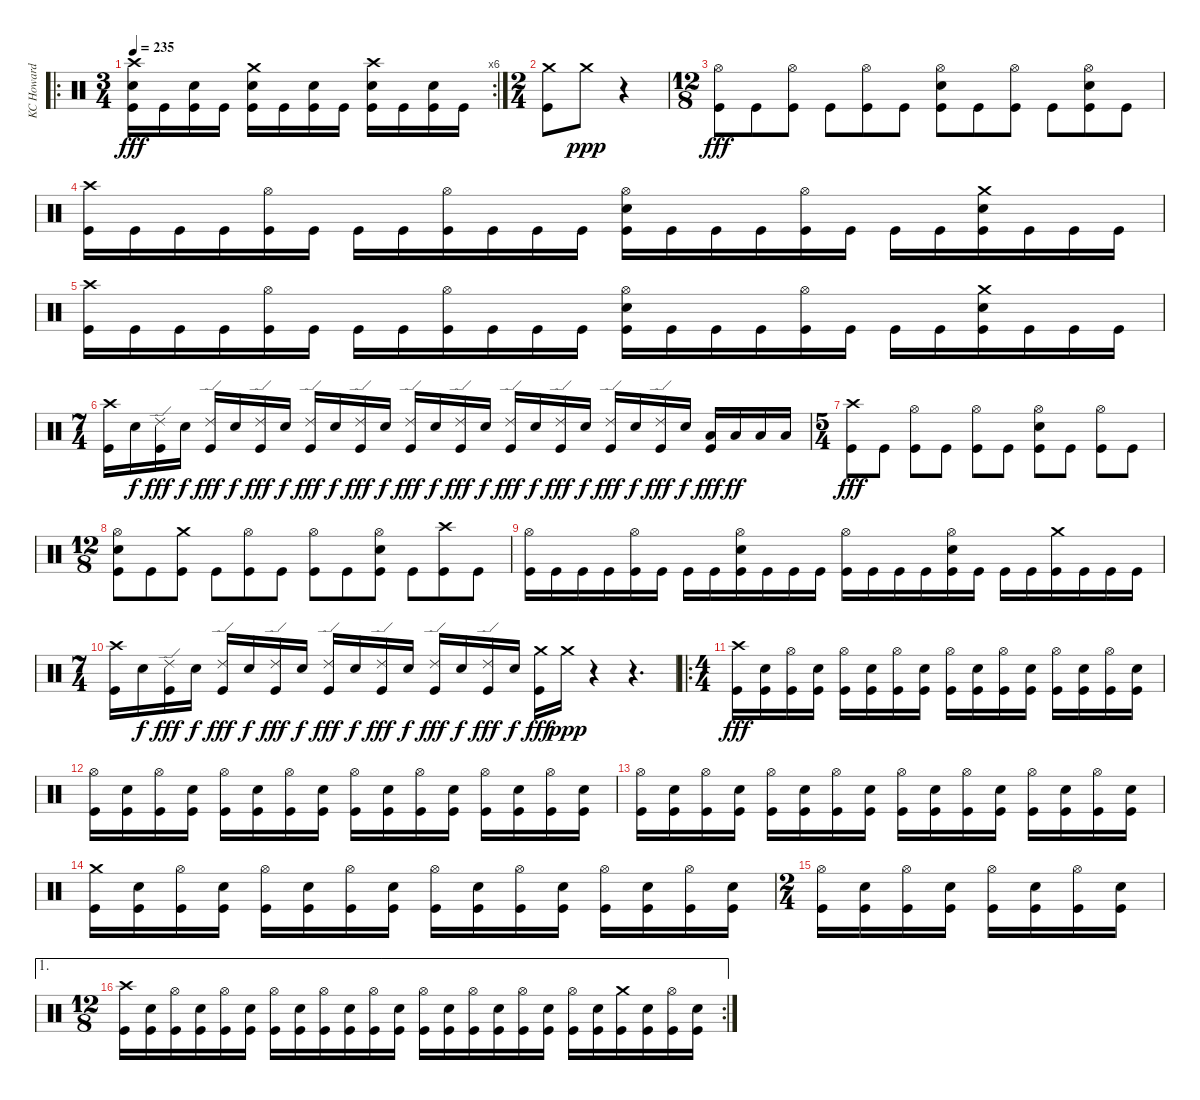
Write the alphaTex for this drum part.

\track ("KC Howard" "KC Howard") {instrument percussion}
\staff {score}
\articulation defaults
\ro
\rc 6
\ts (3 4)
\tempo 235
\clef neutral
\ks c
("Crash high (hit)" "Electric Snare (hit)" "Kick (hit)").16{dy fff} "Kick (hit)".16 ("Electric Snare (hit)" "Kick (hit)").16 "Kick (hit)".16 ("Crash medium (hit)" "Electric Snare (hit)" "Kick (hit)").16 "Kick (hit)".16 ("Electric Snare (hit)" "Kick (hit)").16 "Kick (hit)".16 ("Crash high (hit)" "Electric Snare (hit)" "Kick (hit)").16 "Kick (hit)".16 ("Electric Snare (hit)" "Kick (hit)").16 "Kick (hit)".16 |
\ts (2 4)
("Crash medium (hit)" "Kick (hit)").8 "Crash medium (hit)".8{dy ppp} r.4 |
\ts (12 8)
("Hi-Hat (open)" "Kick (hit)").8{dy fff} "Kick (hit)".8 ("Hi-Hat (open)" "Kick (hit)").8 "Kick (hit)".8 ("Hi-Hat (open)" "Kick (hit)").8 "Kick (hit)".8 ("Hi-Hat (open)" "Electric Snare (hit)" "Kick (hit)").8 "Kick (hit)".8 ("Hi-Hat (open)" "Kick (hit)").8 "Kick (hit)".8 ("Hi-Hat (open)" "Electric Snare (hit)" "Kick (hit)").8 "Kick (hit)".8 |
("Crash high (hit)" "Kick (hit)").16 "Kick (hit)".16 "Kick (hit)".16 "Kick (hit)".16 ("Hi-Hat (open)" "Kick (hit)").16 "Kick (hit)".16 "Kick (hit)".16 "Kick (hit)".16 ("Hi-Hat (open)" "Kick (hit)").16 "Kick (hit)".16 "Kick (hit)".16 "Kick (hit)".16 ("Hi-Hat (open)" "Electric Snare (hit)" "Kick (hit)").16 "Kick (hit)".16 "Kick (hit)".16 "Kick (hit)".16 ("Hi-Hat (open)" "Kick (hit)").16 "Kick (hit)".16 "Kick (hit)".16 "Kick (hit)".16 ("Crash medium (hit)" "Electric Snare (hit)" "Kick (hit)").16 "Kick (hit)".16 "Kick (hit)".16 "Kick (hit)".16 |
("Crash high (hit)" "Kick (hit)").16 "Kick (hit)".16 "Kick (hit)".16 "Kick (hit)".16 ("Hi-Hat (open)" "Kick (hit)").16 "Kick (hit)".16 "Kick (hit)".16 "Kick (hit)".16 ("Hi-Hat (open)" "Kick (hit)").16 "Kick (hit)".16 "Kick (hit)".16 "Kick (hit)".16 ("Hi-Hat (open)" "Electric Snare (hit)" "Kick (hit)").16 "Kick (hit)".16 "Kick (hit)".16 "Kick (hit)".16 ("Hi-Hat (open)" "Kick (hit)").16 "Kick (hit)".16 "Kick (hit)".16 "Kick (hit)".16 ("Crash medium (hit)" "Electric Snare (hit)" "Kick (hit)").16 "Kick (hit)".16 "Kick (hit)".16 "Kick (hit)".16 |
\ts (7 4)
("Crash high (hit)" "Kick (hit)").16 "Electric Snare (hit)".16{dy f} ("Ride (edge) 2" "Kick (hit)").16{dy fff} "Electric Snare (hit)".16{dy f} ("Ride (edge) 2" "Kick (hit)").16{dy fff} "Electric Snare (hit)".16{dy f} ("Ride (edge) 2" "Kick (hit)").16{dy fff} "Electric Snare (hit)".16{dy f} ("Ride (edge) 2" "Kick (hit)").16{dy fff} "Electric Snare (hit)".16{dy f} ("Ride (edge) 2" "Kick (hit)").16{dy fff} "Electric Snare (hit)".16{dy f} ("Ride (edge) 2" "Kick (hit)").16{dy fff} "Electric Snare (hit)".16{dy f} ("Ride (edge) 2" "Kick (hit)").16{dy fff} "Electric Snare (hit)".16{dy f} ("Ride (edge) 2" "Kick (hit)").16{dy fff} "Electric Snare (hit)".16{dy f} ("Ride (edge) 2" "Kick (hit)").16{dy fff} "Electric Snare (hit)".16{dy f} ("Ride (edge) 2" "Kick (hit)").16{dy fff} "Electric Snare (hit)".16{dy f} ("Ride (edge) 2" "Kick (hit)").16{dy fff} "Electric Snare (hit)".16{dy f} ("Low Tom (hit)" "Kick (hit)").16{dy fff} "Low Tom (hit)".16{dy ff} "Low Tom (hit)".16 "Low Tom (hit)".16 |
\ts (5 4)
("Crash high (hit)" "Kick (hit)").8{dy fff} "Kick (hit)".8 ("Hi-Hat (open)" "Kick (hit)").8 "Kick (hit)".8 ("Hi-Hat (open)" "Kick (hit)").8 "Kick (hit)".8 ("Hi-Hat (open)" "Electric Snare (hit)" "Kick (hit)").8 "Kick (hit)".8 ("Hi-Hat (open)" "Kick (hit)").8 "Kick (hit)".8 |
\ts (12 8)
("Hi-Hat (open)" "Electric Snare (hit)" "Kick (hit)").8 "Kick (hit)".8 ("Crash medium (hit)" "Kick (hit)").8 "Kick (hit)".8 ("Hi-Hat (open)" "Kick (hit)").8 "Kick (hit)".8 ("Hi-Hat (open)" "Kick (hit)").8 "Kick (hit)".8 ("Hi-Hat (open)" "Electric Snare (hit)" "Kick (hit)").8 "Kick (hit)".8 ("Crash high (hit)" "Kick (hit)").8 "Kick (hit)".8 |
("Hi-Hat (open)" "Kick (hit)").16 "Kick (hit)".16 "Kick (hit)".16 "Kick (hit)".16 ("Hi-Hat (open)" "Kick (hit)").16 "Kick (hit)".16 "Kick (hit)".16 "Kick (hit)".16 ("Hi-Hat (open)" "Electric Snare (hit)" "Kick (hit)").16 "Kick (hit)".16 "Kick (hit)".16 "Kick (hit)".16 ("Hi-Hat (open)" "Kick (hit)").16 "Kick (hit)".16 "Kick (hit)".16 "Kick (hit)".16 ("Hi-Hat (open)" "Electric Snare (hit)" "Kick (hit)").16 "Kick (hit)".16 "Kick (hit)".16 "Kick (hit)".16 ("Crash medium (hit)" "Kick (hit)").16 "Kick (hit)".16 "Kick (hit)".16 "Kick (hit)".16 |
\ts (7 4)
("Crash high (hit)" "Kick (hit)").16 "Electric Snare (hit)".16{dy f} ("Ride (edge) 2" "Kick (hit)").16{dy fff} "Electric Snare (hit)".16{dy f} ("Ride (edge) 2" "Kick (hit)").16{dy fff} "Electric Snare (hit)".16{dy f} ("Ride (edge) 2" "Kick (hit)").16{dy fff} "Electric Snare (hit)".16{dy f} ("Ride (edge) 2" "Kick (hit)").16{dy fff} "Electric Snare (hit)".16{dy f} ("Ride (edge) 2" "Kick (hit)").16{dy fff} "Electric Snare (hit)".16{dy f} ("Ride (edge) 2" "Kick (hit)").16{dy fff} "Electric Snare (hit)".16{dy f} ("Ride (edge) 2" "Kick (hit)").16{dy fff} "Electric Snare (hit)".16{dy f} ("Crash medium (hit)" "Kick (hit)").16{dy fff} "Crash medium (hit)".16{dy ppp} r.4 r.4{d} |
\ro
\ts (4 4)
("Crash high (hit)" "Kick (hit)").16{dy fff} ("Electric Snare (hit)" "Kick (hit)").16 ("Hi-Hat (open)" "Kick (hit)").16 ("Electric Snare (hit)" "Kick (hit)").16 ("Hi-Hat (open)" "Kick (hit)").16 ("Electric Snare (hit)" "Kick (hit)").16 ("Hi-Hat (open)" "Kick (hit)").16 ("Electric Snare (hit)" "Kick (hit)").16 ("Hi-Hat (open)" "Kick (hit)").16 ("Electric Snare (hit)" "Kick (hit)").16 ("Hi-Hat (open)" "Kick (hit)").16 ("Electric Snare (hit)" "Kick (hit)").16 ("Hi-Hat (open)" "Kick (hit)").16 ("Electric Snare (hit)" "Kick (hit)").16 ("Hi-Hat (open)" "Kick (hit)").16 ("Electric Snare (hit)" "Kick (hit)").16 |
("Hi-Hat (open)" "Kick (hit)").16 ("Electric Snare (hit)" "Kick (hit)").16 ("Hi-Hat (open)" "Kick (hit)").16 ("Electric Snare (hit)" "Kick (hit)").16 ("Hi-Hat (open)" "Kick (hit)").16 ("Electric Snare (hit)" "Kick (hit)").16 ("Hi-Hat (open)" "Kick (hit)").16 ("Electric Snare (hit)" "Kick (hit)").16 ("Hi-Hat (open)" "Kick (hit)").16 ("Electric Snare (hit)" "Kick (hit)").16 ("Hi-Hat (open)" "Kick (hit)").16 ("Electric Snare (hit)" "Kick (hit)").16 ("Hi-Hat (open)" "Kick (hit)").16 ("Electric Snare (hit)" "Kick (hit)").16 ("Hi-Hat (open)" "Kick (hit)").16 ("Electric Snare (hit)" "Kick (hit)").16 |
("Hi-Hat (open)" "Kick (hit)").16 ("Electric Snare (hit)" "Kick (hit)").16 ("Hi-Hat (open)" "Kick (hit)").16 ("Electric Snare (hit)" "Kick (hit)").16 ("Hi-Hat (open)" "Kick (hit)").16 ("Electric Snare (hit)" "Kick (hit)").16 ("Hi-Hat (open)" "Kick (hit)").16 ("Electric Snare (hit)" "Kick (hit)").16 ("Hi-Hat (open)" "Kick (hit)").16 ("Electric Snare (hit)" "Kick (hit)").16 ("Hi-Hat (open)" "Kick (hit)").16 ("Electric Snare (hit)" "Kick (hit)").16 ("Hi-Hat (open)" "Kick (hit)").16 ("Electric Snare (hit)" "Kick (hit)").16 ("Hi-Hat (open)" "Kick (hit)").16 ("Electric Snare (hit)" "Kick (hit)").16 |
("Crash medium (hit)" "Kick (hit)").16 ("Electric Snare (hit)" "Kick (hit)").16 ("Hi-Hat (open)" "Kick (hit)").16 ("Electric Snare (hit)" "Kick (hit)").16 ("Hi-Hat (open)" "Kick (hit)").16 ("Electric Snare (hit)" "Kick (hit)").16 ("Hi-Hat (open)" "Kick (hit)").16 ("Electric Snare (hit)" "Kick (hit)").16 ("Hi-Hat (open)" "Kick (hit)").16 ("Electric Snare (hit)" "Kick (hit)").16 ("Hi-Hat (open)" "Kick (hit)").16 ("Electric Snare (hit)" "Kick (hit)").16 ("Hi-Hat (open)" "Kick (hit)").16 ("Electric Snare (hit)" "Kick (hit)").16 ("Hi-Hat (open)" "Kick (hit)").16 ("Electric Snare (hit)" "Kick (hit)").16 |
\ts (2 4)
("Hi-Hat (open)" "Kick (hit)").16 ("Electric Snare (hit)" "Kick (hit)").16 ("Hi-Hat (open)" "Kick (hit)").16 ("Electric Snare (hit)" "Kick (hit)").16 ("Hi-Hat (open)" "Kick (hit)").16 ("Electric Snare (hit)" "Kick (hit)").16 ("Hi-Hat (open)" "Kick (hit)").16 ("Electric Snare (hit)" "Kick (hit)").16 |
\ae 1
\rc 2
\ts (12 8)
("Crash high (hit)" "Kick (hit)").16 ("Electric Snare (hit)" "Kick (hit)").16 ("Hi-Hat (open)" "Kick (hit)").16 ("Electric Snare (hit)" "Kick (hit)").16 ("Hi-Hat (open)" "Kick (hit)").16 ("Electric Snare (hit)" "Kick (hit)").16 ("Hi-Hat (open)" "Kick (hit)").16 ("Electric Snare (hit)" "Kick (hit)").16 ("Hi-Hat (open)" "Kick (hit)").16 ("Electric Snare (hit)" "Kick (hit)").16 ("Hi-Hat (open)" "Kick (hit)").16 ("Electric Snare (hit)" "Kick (hit)").16 ("Hi-Hat (open)" "Kick (hit)").16 ("Electric Snare (hit)" "Kick (hit)").16 ("Hi-Hat (open)" "Kick (hit)").16 ("Electric Snare (hit)" "Kick (hit)").16 ("Hi-Hat (open)" "Kick (hit)").16 ("Electric Snare (hit)" "Kick (hit)").16 ("Hi-Hat (open)" "Kick (hit)").16 ("Electric Snare (hit)" "Kick (hit)").16 ("Crash medium (hit)" "Kick (hit)").16 ("Electric Snare (hit)" "Kick (hit)").16 ("Hi-Hat (open)" "Kick (hit)").16 ("Electric Snare (hit)" "Kick (hit)").16
